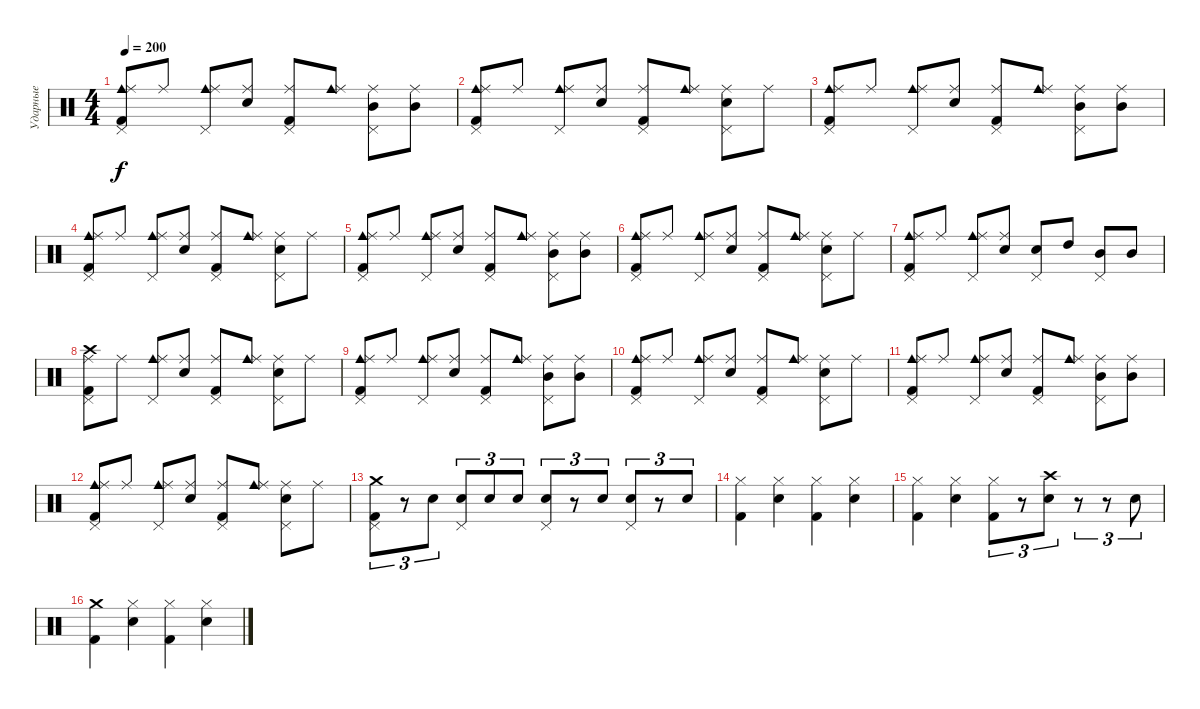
\track ("Ударные" "Ударные") {instrument percussion}
\staff {score}
\articulation defaults
\ts (4 4)
\tempo 200
\clef neutral
\ks c
("Cowbell medium (hit)" "Ride (middle)" "Kick (hit) 2" "Pedal Hi-Hat (hit)").8{dy f} "Ride (middle)".8 ("Cowbell medium (hit)" "Ride (middle)" "Pedal Hi-Hat (hit)").8 ("Electric Snare (hit)" "Ride (middle)").8 ("Ride (middle)" "Kick (hit) 2" "Pedal Hi-Hat (hit)").8 ("Cowbell medium (hit)" "Ride (middle)").8 ("Mid Tom (hit)" "Ride (middle)" "Pedal Hi-Hat (hit)").8 ("Mid Tom (hit)" "Ride (middle)").8 |
("Cowbell medium (hit)" "Ride (middle)" "Kick (hit) 2" "Pedal Hi-Hat (hit)").8 "Ride (middle)".8 ("Cowbell medium (hit)" "Ride (middle)" "Pedal Hi-Hat (hit)").8 ("Electric Snare (hit)" "Ride (middle)").8 ("Ride (middle)" "Kick (hit) 2" "Pedal Hi-Hat (hit)").8 ("Cowbell medium (hit)" "Ride (middle)").8 ("Electric Snare (hit)" "Ride (middle)" "Pedal Hi-Hat (hit)").8 "Ride (middle)".8 |
("Cowbell medium (hit)" "Ride (middle)" "Kick (hit) 2" "Pedal Hi-Hat (hit)").8 "Ride (middle)".8 ("Cowbell medium (hit)" "Ride (middle)" "Pedal Hi-Hat (hit)").8 ("Electric Snare (hit)" "Ride (middle)").8 ("Ride (middle)" "Kick (hit) 2" "Pedal Hi-Hat (hit)").8 ("Cowbell medium (hit)" "Ride (middle)").8 ("Mid Tom (hit)" "Ride (middle)" "Pedal Hi-Hat (hit)").8 ("Mid Tom (hit)" "Ride (middle)").8 |
("Cowbell medium (hit)" "Ride (middle)" "Kick (hit) 2" "Pedal Hi-Hat (hit)").8 "Ride (middle)".8 ("Cowbell medium (hit)" "Ride (middle)" "Pedal Hi-Hat (hit)").8 ("Electric Snare (hit)" "Ride (middle)").8 ("Ride (middle)" "Kick (hit) 2" "Pedal Hi-Hat (hit)").8 ("Cowbell medium (hit)" "Ride (middle)").8 ("Electric Snare (hit)" "Ride (middle)" "Pedal Hi-Hat (hit)").8 "Ride (middle)".8 |
("Cowbell medium (hit)" "Ride (middle)" "Kick (hit) 2" "Pedal Hi-Hat (hit)").8 "Ride (middle)".8 ("Cowbell medium (hit)" "Ride (middle)" "Pedal Hi-Hat (hit)").8 ("Electric Snare (hit)" "Ride (middle)").8 ("Ride (middle)" "Kick (hit) 2" "Pedal Hi-Hat (hit)").8 ("Cowbell medium (hit)" "Ride (middle)").8 ("Mid Tom (hit)" "Ride (middle)" "Pedal Hi-Hat (hit)").8 ("Mid Tom (hit)" "Ride (middle)").8 |
("Cowbell medium (hit)" "Ride (middle)" "Kick (hit) 2" "Pedal Hi-Hat (hit)").8 "Ride (middle)".8 ("Cowbell medium (hit)" "Ride (middle)" "Pedal Hi-Hat (hit)").8 ("Electric Snare (hit)" "Ride (middle)").8 ("Ride (middle)" "Kick (hit) 2" "Pedal Hi-Hat (hit)").8 ("Cowbell medium (hit)" "Ride (middle)").8 ("Electric Snare (hit)" "Ride (middle)" "Pedal Hi-Hat (hit)").8 "Ride (middle)".8 |
("Cowbell medium (hit)" "Ride (middle)" "Kick (hit) 2" "Pedal Hi-Hat (hit)").8 "Ride (middle)".8 ("Cowbell medium (hit)" "Ride (middle)" "Pedal Hi-Hat (hit)").8 ("Electric Snare (hit)" "Ride (middle)").8 ("Electric Snare (hit)" "Pedal Hi-Hat (hit)").8 "High Tom (hit)".8 ("Mid Tom (hit)" "Pedal Hi-Hat (hit)").8 "Mid Tom (hit)".8 |
("Crash high (hit)" "Ride (middle)" "Kick (hit) 2" "Pedal Hi-Hat (hit)").8 "Ride (middle)".8 ("Cowbell medium (hit)" "Ride (middle)" "Pedal Hi-Hat (hit)").8 ("Electric Snare (hit)" "Ride (middle)").8 ("Ride (middle)" "Kick (hit) 2" "Pedal Hi-Hat (hit)").8 ("Cowbell medium (hit)" "Ride (middle)").8 ("Electric Snare (hit)" "Ride (middle)" "Pedal Hi-Hat (hit)").8 "Ride (middle)".8 |
("Cowbell medium (hit)" "Ride (middle)" "Kick (hit) 2" "Pedal Hi-Hat (hit)").8 "Ride (middle)".8 ("Cowbell medium (hit)" "Ride (middle)" "Pedal Hi-Hat (hit)").8 ("Electric Snare (hit)" "Ride (middle)").8 ("Ride (middle)" "Kick (hit) 2" "Pedal Hi-Hat (hit)").8 ("Cowbell medium (hit)" "Ride (middle)").8 ("Mid Tom (hit)" "Ride (middle)" "Pedal Hi-Hat (hit)").8 ("Mid Tom (hit)" "Ride (middle)").8 |
("Cowbell medium (hit)" "Ride (middle)" "Kick (hit) 2" "Pedal Hi-Hat (hit)").8 "Ride (middle)".8 ("Cowbell medium (hit)" "Ride (middle)" "Pedal Hi-Hat (hit)").8 ("Electric Snare (hit)" "Ride (middle)").8 ("Ride (middle)" "Kick (hit) 2" "Pedal Hi-Hat (hit)").8 ("Cowbell medium (hit)" "Ride (middle)").8 ("Electric Snare (hit)" "Ride (middle)" "Pedal Hi-Hat (hit)").8 "Ride (middle)".8 |
("Cowbell medium (hit)" "Ride (middle)" "Kick (hit) 2" "Pedal Hi-Hat (hit)").8 "Ride (middle)".8 ("Cowbell medium (hit)" "Ride (middle)" "Pedal Hi-Hat (hit)").8 ("Electric Snare (hit)" "Ride (middle)").8 ("Ride (middle)" "Kick (hit) 2" "Pedal Hi-Hat (hit)").8 ("Cowbell medium (hit)" "Ride (middle)").8 ("Mid Tom (hit)" "Ride (middle)" "Pedal Hi-Hat (hit)").8 ("Mid Tom (hit)" "Ride (middle)").8 |
("Cowbell medium (hit)" "Ride (middle)" "Kick (hit) 2" "Pedal Hi-Hat (hit)").8 "Ride (middle)".8 ("Cowbell medium (hit)" "Ride (middle)" "Pedal Hi-Hat (hit)").8 ("Electric Snare (hit)" "Ride (middle)").8 ("Ride (middle)" "Kick (hit) 2" "Pedal Hi-Hat (hit)").8 ("Cowbell medium (hit)" "Ride (middle)").8 ("Electric Snare (hit)" "Ride (middle)" "Pedal Hi-Hat (hit)").8 "Ride (middle)".8 |
("Crash medium (hit)" "Kick (hit) 2" "Pedal Hi-Hat (hit)").8{tu (3 2)} r.8{tu (3 2)} "Electric Snare (hit)".8{tu (3 2)} ("Electric Snare (hit)" "Pedal Hi-Hat (hit)").8{tu (3 2)} "Electric Snare (hit)".8{tu (3 2)} "Electric Snare (hit)".8{tu (3 2)} ("Electric Snare (hit)" "Pedal Hi-Hat (hit)").8{tu (3 2)} r.8{tu (3 2)} "Electric Snare (hit)".8{tu (3 2)} ("Electric Snare (hit)" "Pedal Hi-Hat (hit)").8{tu (3 2)} r.8{tu (3 2)} "Electric Snare (hit)".8{tu (3 2)} |
("Hi-Hat (closed)" "Kick (hit) 2").4 ("Hi-Hat (closed)" "Electric Snare (hit)").4 ("Hi-Hat (closed)" "Kick (hit) 2").4 ("Hi-Hat (closed)" "Electric Snare (hit)").4 |
("Hi-Hat (closed)" "Kick (hit) 2").4 ("Hi-Hat (closed)" "Electric Snare (hit)").4 ("Hi-Hat (closed)" "Kick (hit) 2").8{tu (3 2)} r.8{tu (3 2)} ("Crash high (hit)" "Electric Snare (hit)").8{tu (3 2)} r.8{tu (3 2)} r.8{tu (3 2)} "Electric Snare (hit)".8{tu (3 2)} |
("Crash medium (hit)" "Kick (hit) 2").4 ("Hi-Hat (closed)" "Electric Snare (hit)").4 ("Hi-Hat (closed)" "Kick (hit) 2").4 ("Hi-Hat (closed)" "Electric Snare (hit)").4
